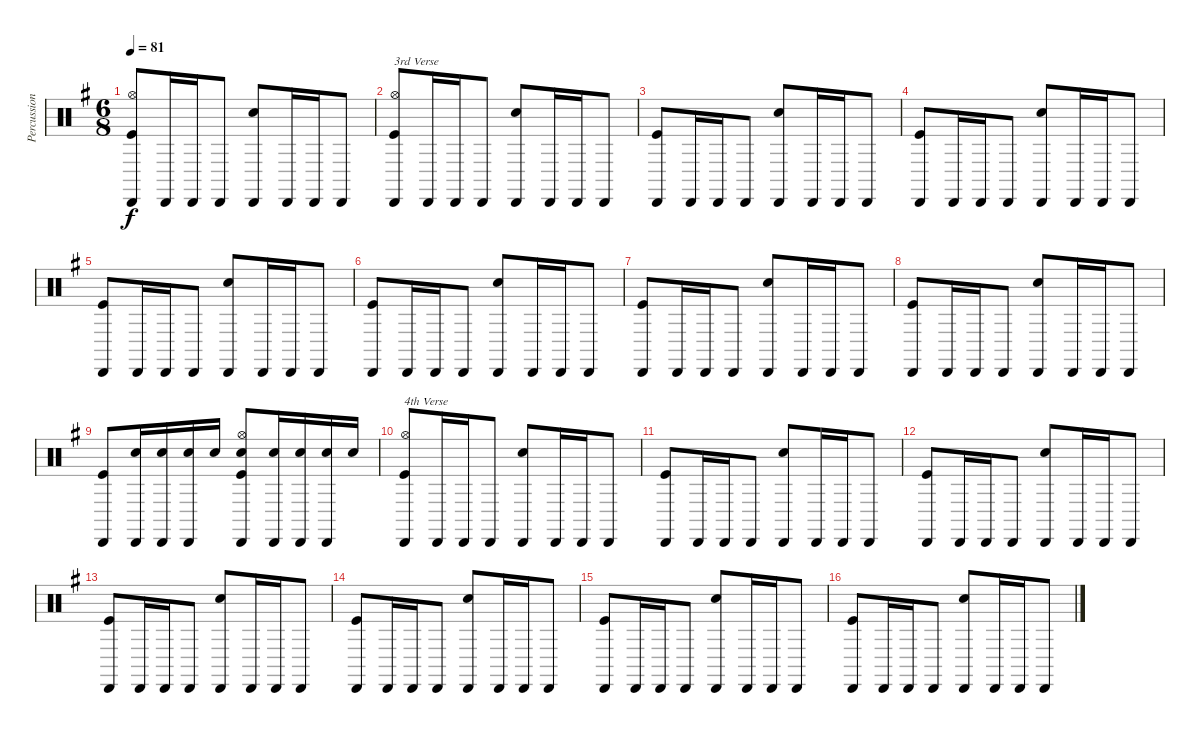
\track ("Percussion" "Percussion") {instrument percussion}
\staff {score}
\articulation defaults
\ts (6 8)
\tempo 81
\clef neutral
\ks g
("Cabasa (hit)" "Hi-Hat (open)" "Kick (hit)").8{dy f} "Cabasa (hit)".16 "Cabasa (hit)".16 "Cabasa (hit)".8 ("Cabasa (hit)" "Snare (hit) 2").8 "Cabasa (hit)".16 "Cabasa (hit)".16 "Cabasa (hit)".8 |
("Cabasa (hit)" "Hi-Hat (open)" "Kick (hit)").8{txt "3rd Verse"} "Cabasa (hit)".16 "Cabasa (hit)".16 "Cabasa (hit)".8 ("Cabasa (hit)" "Snare (hit) 2").8 "Cabasa (hit)".16 "Cabasa (hit)".16 "Cabasa (hit)".8 |
("Cabasa (hit)" "Kick (hit)").8 "Cabasa (hit)".16 "Cabasa (hit)".16 "Cabasa (hit)".8 ("Cabasa (hit)" "Snare (hit) 2").8 "Cabasa (hit)".16 "Cabasa (hit)".16 "Cabasa (hit)".8 |
("Cabasa (hit)" "Kick (hit)").8 "Cabasa (hit)".16 "Cabasa (hit)".16 "Cabasa (hit)".8 ("Cabasa (hit)" "Snare (hit) 2").8 "Cabasa (hit)".16 "Cabasa (hit)".16 "Cabasa (hit)".8 |
("Cabasa (hit)" "Kick (hit)").8 "Cabasa (hit)".16 "Cabasa (hit)".16 "Cabasa (hit)".8 ("Cabasa (hit)" "Snare (hit) 2").8 "Cabasa (hit)".16 "Cabasa (hit)".16 "Cabasa (hit)".8 |
("Cabasa (hit)" "Kick (hit)").8 "Cabasa (hit)".16 "Cabasa (hit)".16 "Cabasa (hit)".8 ("Cabasa (hit)" "Snare (hit) 2").8 "Cabasa (hit)".16 "Cabasa (hit)".16 "Cabasa (hit)".8 |
("Cabasa (hit)" "Kick (hit)").8 "Cabasa (hit)".16 "Cabasa (hit)".16 "Cabasa (hit)".8 ("Cabasa (hit)" "Snare (hit) 2").8 "Cabasa (hit)".16 "Cabasa (hit)".16 "Cabasa (hit)".8 |
("Cabasa (hit)" "Kick (hit)").8 "Cabasa (hit)".16 "Cabasa (hit)".16 "Cabasa (hit)".8 ("Cabasa (hit)" "Snare (hit) 2").8 "Cabasa (hit)".16 "Cabasa (hit)".16 "Cabasa (hit)".8 |
("Cabasa (hit)" "Kick (hit)").8 ("Cabasa (hit)" "Snare (hit) 2").16 ("Cabasa (hit)" "Snare (hit) 2").16 ("Cabasa (hit)" "Snare (hit) 2").16 "Snare (hit) 2".16 ("Cabasa (hit)" "Hi-Hat (open)" "Kick (hit)" "Snare (hit) 2").8 ("Cabasa (hit)" "Snare (hit) 2").16 ("Cabasa (hit)" "Snare (hit) 2").16 ("Cabasa (hit)" "Snare (hit) 2").16 "Snare (hit) 2".16 |
("Cabasa (hit)" "Hi-Hat (open)" "Kick (hit)").8{txt "4th Verse"} "Cabasa (hit)".16 "Cabasa (hit)".16 "Cabasa (hit)".8 ("Cabasa (hit)" "Snare (hit) 2").8 "Cabasa (hit)".16 "Cabasa (hit)".16 "Cabasa (hit)".8 |
("Cabasa (hit)" "Kick (hit)").8 "Cabasa (hit)".16 "Cabasa (hit)".16 "Cabasa (hit)".8 ("Cabasa (hit)" "Snare (hit) 2").8 "Cabasa (hit)".16 "Cabasa (hit)".16 "Cabasa (hit)".8 |
("Cabasa (hit)" "Kick (hit)").8 "Cabasa (hit)".16 "Cabasa (hit)".16 "Cabasa (hit)".8 ("Cabasa (hit)" "Snare (hit) 2").8 "Cabasa (hit)".16 "Cabasa (hit)".16 "Cabasa (hit)".8 |
("Cabasa (hit)" "Kick (hit)").8 "Cabasa (hit)".16 "Cabasa (hit)".16 "Cabasa (hit)".8 ("Cabasa (hit)" "Snare (hit) 2").8 "Cabasa (hit)".16 "Cabasa (hit)".16 "Cabasa (hit)".8 |
("Cabasa (hit)" "Kick (hit)").8 "Cabasa (hit)".16 "Cabasa (hit)".16 "Cabasa (hit)".8 ("Cabasa (hit)" "Snare (hit) 2").8 "Cabasa (hit)".16 "Cabasa (hit)".16 "Cabasa (hit)".8 |
("Cabasa (hit)" "Kick (hit)").8 "Cabasa (hit)".16 "Cabasa (hit)".16 "Cabasa (hit)".8 ("Cabasa (hit)" "Snare (hit) 2").8 "Cabasa (hit)".16 "Cabasa (hit)".16 "Cabasa (hit)".8 |
("Cabasa (hit)" "Kick (hit)").8 "Cabasa (hit)".16 "Cabasa (hit)".16 "Cabasa (hit)".8 ("Cabasa (hit)" "Snare (hit) 2").8 "Cabasa (hit)".16 "Cabasa (hit)".16 "Cabasa (hit)".8
